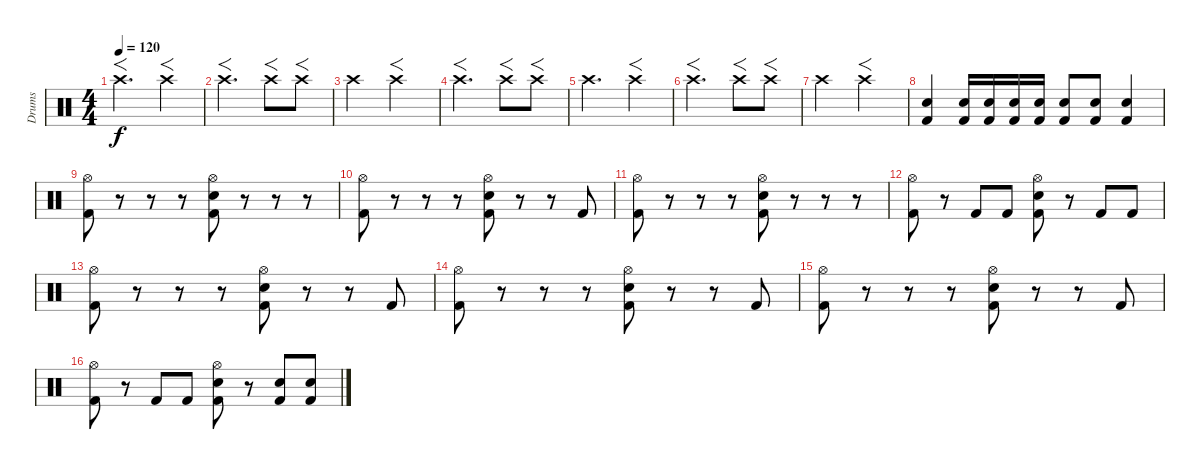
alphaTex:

\track ("Drums" "Drums") {instrument percussion}
\staff {score}
\articulation defaults
\ts (4 4)
\tempo 120
\clef neutral
\ks c "Crash high (hit)".2{f d dy f} "Crash high (hit)".4{f}
|
"Crash high (hit)".2{f d} "Crash high (hit)".8{f} "Crash high (hit)".8{f} |
"Crash high (hit)".2 "Crash high (hit)".2{f} |
"Crash high (hit)".2{f d} "Crash high (hit)".8{f} "Crash high (hit)".8{f} |
"Crash high (hit)".2{d} "Crash high (hit)".4{f} |
"Crash high (hit)".2{f d} "Crash high (hit)".8{f} "Crash high (hit)".8{f} |
"Crash high (hit)".2 "Crash high (hit)".2{f} |
("Electric Snare (hit)" "Kick (hit) 2").4 ("Electric Snare (hit)" "Kick (hit) 2").16 ("Electric Snare (hit)" "Kick (hit) 2").16 ("Electric Snare (hit)" "Kick (hit) 2").16 ("Electric Snare (hit)" "Kick (hit) 2").16 ("Electric Snare (hit)" "Kick (hit) 2").8 ("Electric Snare (hit)" "Kick (hit) 2").8 ("Electric Snare (hit)" "Kick (hit) 2").4 |
("Hi-Hat (open)" "Kick (hit) 2").8 r.8 r.8 r.8 ("Hi-Hat (open)" "Electric Snare (hit)" "Kick (hit) 2").8 r.8 r.8 r.8 |
("Hi-Hat (open)" "Kick (hit) 2").8 r.8 r.8 r.8 ("Hi-Hat (open)" "Electric Snare (hit)" "Kick (hit) 2").8 r.8 r.8 "Kick (hit) 2".8 |
("Hi-Hat (open)" "Kick (hit) 2").8 r.8 r.8 r.8 ("Hi-Hat (open)" "Electric Snare (hit)" "Kick (hit) 2").8 r.8 r.8 r.8 |
("Hi-Hat (open)" "Kick (hit) 2").8 r.8 "Kick (hit) 2".8 "Kick (hit) 2".8 ("Hi-Hat (open)" "Electric Snare (hit)" "Kick (hit) 2").8 r.8 "Kick (hit) 2".8 "Kick (hit) 2".8 |
("Hi-Hat (open)" "Kick (hit) 2").8 r.8 r.8 r.8 ("Hi-Hat (open)" "Electric Snare (hit)" "Kick (hit) 2").8 r.8 r.8 "Kick (hit) 2".8 |
("Hi-Hat (open)" "Kick (hit) 2").8 r.8 r.8 r.8 ("Hi-Hat (open)" "Electric Snare (hit)" "Kick (hit) 2").8 r.8 r.8 "Kick (hit) 2".8 |
("Hi-Hat (open)" "Kick (hit) 2").8 r.8 r.8 r.8 ("Hi-Hat (open)" "Electric Snare (hit)" "Kick (hit) 2").8 r.8 r.8 "Kick (hit) 2".8 |
("Hi-Hat (open)" "Kick (hit) 2").8 r.8 "Kick (hit) 2".8 "Kick (hit) 2".8 ("Hi-Hat (open)" "Electric Snare (hit)" "Kick (hit) 2").8 r.8 ("Electric Snare (hit)" "Kick (hit) 2").8 ("Electric Snare (hit)" "Kick (hit) 2").8
